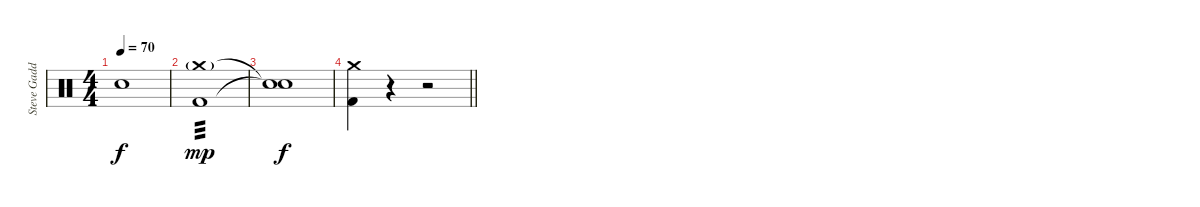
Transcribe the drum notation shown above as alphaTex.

\track ("Steve Gadd Drums" "Steve Gadd") {instrument percussion}
\staff {score}
\articulation defaults
\ts (4 4)
\tempo 70
\clef neutral
\ks c "Snare (hit)"{t}.1{dy f}
|
("Crash medium (hit)"{g} "Kick (hit) 2").1{tp 3 dy mp} |
("Snare (hit)"{t} "Snare (hit)"{t}).1{dy f} |
\barLineRight lightlight
("Crash medium (hit)" "Kick (hit) 2").4 r.4 r.2
